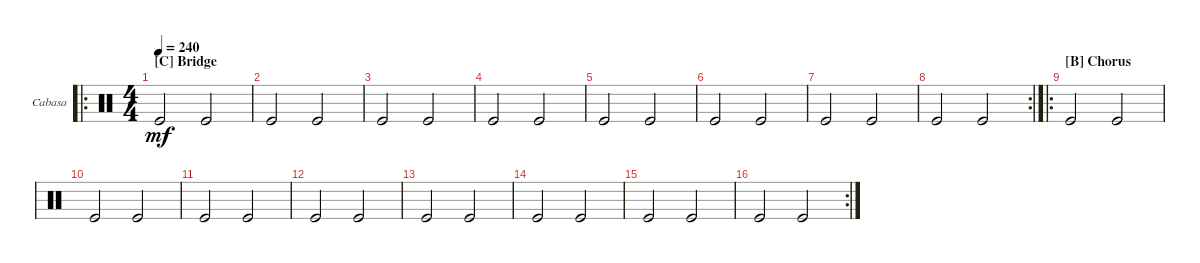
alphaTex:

\bracketExtendMode groupsimilarinstruments
\firstSystemTrackNameOrientation horizontal
\otherSystemsTrackNameOrientation horizontal
\track ("Cabasa" "Cabasa") {instrument percussion}
\staff {score}
\articulation defaults
\ro
\ts (4 4)
\section ("C" "Bridge")
\tempo 240
\clef neutral
\scale
0.377778
\ks c "Kick (hit)".2{dy mf} "Kick (hit)".2
|
\scale
0.311111 "Kick (hit)".2 "Kick (hit)".2 |
\scale
0.311111 "Kick (hit)".2 "Kick (hit)".2 |
\scale
0.333333 "Kick (hit)".2 "Kick (hit)".2 |
\scale
0.333333 "Kick (hit)".2 "Kick (hit)".2 |
\scale
0.333333 "Kick (hit)".2 "Kick (hit)".2 |
\scale
0.301075 "Kick (hit)".2 "Kick (hit)".2 |
\rc 2
\scale
0.333333 "Kick (hit)".2 "Kick (hit)".2 |
\ro
\section ("B" "Chorus")
\scale
0.365591 "Kick (hit)".2 "Kick (hit)".2 |
\scale
0.333333 "Kick (hit)".2 "Kick (hit)".2 |
\scale
0.333333 "Kick (hit)".2 "Kick (hit)".2 |
\scale
0.333333 "Kick (hit)".2 "Kick (hit)".2 |
\scale
0.333333 "Kick (hit)".2 "Kick (hit)".2 |
\scale
0.333333 "Kick (hit)".2 "Kick (hit)".2 |
\scale
0.333333 "Kick (hit)".2 "Kick (hit)".2 |
\rc 2
\scale
0.333333 "Kick (hit)".2 "Kick (hit)".2
